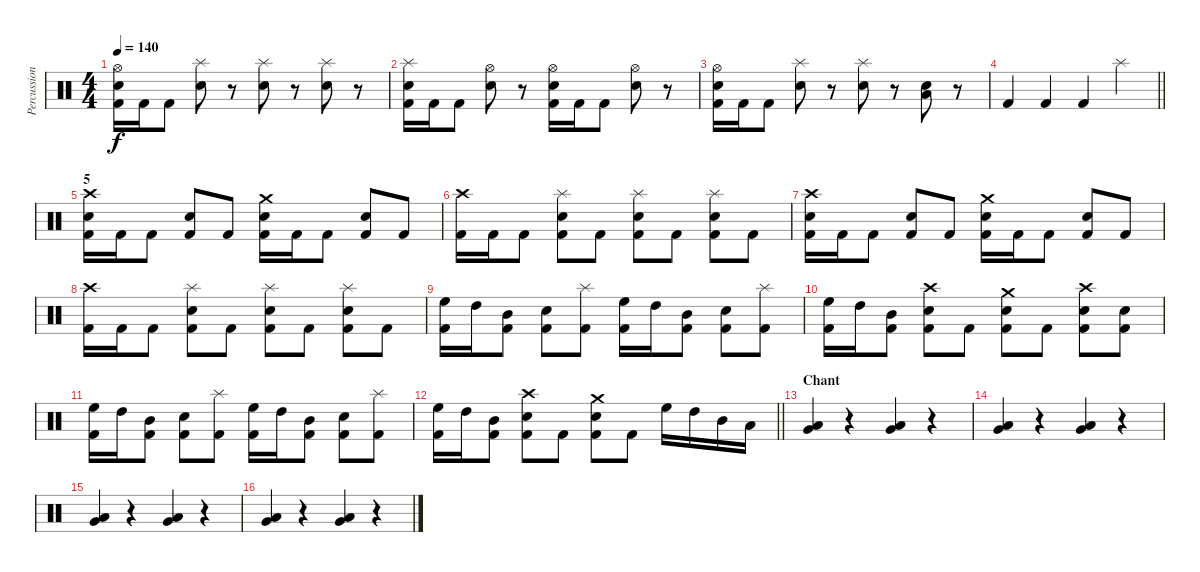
\track ("Percussion" "Percussion") {instrument percussion}
\staff {score}
\articulation defaults
\ts (4 4)
\tempo 140
\clef neutral
\ks c
("Hi-Hat (open)" "Snare (hit) 2" "Kick (hit) 2").16{dy f} "Kick (hit) 2".16 "Kick (hit) 2".8 ("Splash (hit)" "Snare (hit) 2").8 r.8 ("Splash (hit)" "Snare (hit) 2").8 r.8 ("Splash (hit)" "Snare (hit) 2").8 r.8 |
("Splash (hit)" "Snare (hit) 2" "Kick (hit) 2").16 "Kick (hit) 2".16 "Kick (hit) 2".8 ("Hi-Hat (open)" "Snare (hit) 2").8 r.8 ("Hi-Hat (open)" "Snare (hit) 2" "Kick (hit) 2").16 "Kick (hit) 2".16 "Kick (hit) 2".8 ("Hi-Hat (open)" "Snare (hit) 2").8 r.8 |
("Hi-Hat (open)" "Snare (hit) 2" "Kick (hit) 2").16 "Kick (hit) 2".16 "Kick (hit) 2".8 ("Splash (hit)" "Snare (hit) 2").8 r.8 ("Splash (hit)" "Snare (hit) 2").8 r.8 ("Low Floor Tom (hit)" "Snare (hit) 2").8 r.8 |
\barLineRight lightlight "Kick (hit) 2".4 "Kick (hit) 2".4 "Kick (hit) 2".4 "Splash (hit)".4
|
\section ("" "5")
("Crash high (hit)" "Snare (hit) 2" "Kick (hit) 2").16 "Kick (hit) 2".16 "Kick (hit) 2".8 ("Snare (hit) 2" "Kick (hit) 2").8 "Kick (hit) 2".8 ("Crash medium (hit)" "Snare (hit) 2" "Kick (hit) 2").16 "Kick (hit) 2".16 "Kick (hit) 2".8 ("Snare (hit) 2" "Kick (hit) 2").8 "Kick (hit) 2".8 |
("Crash high (hit)" "Kick (hit) 2").16 "Kick (hit) 2".16 "Kick (hit) 2".8 ("Splash (hit)" "Snare (hit) 2" "Kick (hit) 2").8 "Kick (hit) 2".8 ("Splash (hit)" "Snare (hit) 2" "Kick (hit) 2").8 "Kick (hit) 2".8 ("Splash (hit)" "Snare (hit) 2" "Kick (hit) 2").8 "Kick (hit) 2".8 |
("Crash high (hit)" "Snare (hit) 2" "Kick (hit) 2").16 "Kick (hit) 2".16 "Kick (hit) 2".8 ("Snare (hit) 2" "Kick (hit) 2").8 "Kick (hit) 2".8 ("Crash medium (hit)" "Snare (hit) 2" "Kick (hit) 2").16 "Kick (hit) 2".16 "Kick (hit) 2".8 ("Snare (hit) 2" "Kick (hit) 2").8 "Kick (hit) 2".8 |
("Crash high (hit)" "Kick (hit) 2").16 "Kick (hit) 2".16 "Kick (hit) 2".8 ("Splash (hit)" "Snare (hit) 2" "Kick (hit) 2").8 "Kick (hit) 2".8 ("Splash (hit)" "Snare (hit) 2" "Kick (hit) 2").8 "Kick (hit) 2".8 ("Splash (hit)" "Snare (hit) 2" "Kick (hit) 2").8 "Kick (hit) 2".8 |
("High Floor Tom (hit)" "Kick (hit) 2").16 "High Tom (hit)".16 ("Mid Tom (hit)" "Kick (hit) 2").8 ("Snare (hit) 2" "Kick (hit) 2").8 ("Splash (hit)" "Kick (hit) 2").8 ("High Floor Tom (hit)" "Kick (hit) 2").16 "High Tom (hit)".16 ("Mid Tom (hit)" "Kick (hit) 2").8 ("Snare (hit) 2" "Kick (hit) 2").8 ("Splash (hit)" "Kick (hit) 2").8 |
("High Floor Tom (hit)" "Kick (hit) 2").16 "High Tom (hit)".16 ("Mid Tom (hit)" "Kick (hit) 2").8 ("Crash high (hit)" "Snare (hit) 2" "Kick (hit) 2").8 "Kick (hit) 2".8 ("Crash medium (hit)" "Snare (hit) 2" "Kick (hit) 2").8 "Kick (hit) 2".8 ("Crash high (hit)" "Snare (hit) 2" "Kick (hit) 2").8 ("Snare (hit) 2" "Kick (hit) 2").8 |
("High Floor Tom (hit)" "Kick (hit) 2").16 "High Tom (hit)".16 ("Mid Tom (hit)" "Kick (hit) 2").8 ("Snare (hit) 2" "Kick (hit) 2").8 ("Splash (hit)" "Kick (hit) 2").8 ("High Floor Tom (hit)" "Kick (hit) 2").16 "High Tom (hit)".16 ("Mid Tom (hit)" "Kick (hit) 2").8 ("Snare (hit) 2" "Kick (hit) 2").8 ("Splash (hit)" "Kick (hit) 2").8 |
\barLineRight lightlight
("High Floor Tom (hit)" "Kick (hit) 2").16 "High Tom (hit)".16 ("Mid Tom (hit)" "Kick (hit) 2").8 ("Crash high (hit)" "Snare (hit) 2" "Kick (hit) 2").8 "Kick (hit) 2".8 ("Crash medium (hit)" "Snare (hit) 2" "Kick (hit) 2").8 "Kick (hit) 2".8 "High Floor Tom (hit)".16 "High Tom (hit)".16 "Mid Tom (hit)".16 "Low Tom (hit)".16 |
\section ("" "Chant")
("Very Low Tom (hit)" "Low Floor Tom (hit)").4 r.4 ("Very Low Tom (hit)" "Low Floor Tom (hit)").4 r.4 |
("Very Low Tom (hit)" "Low Floor Tom (hit)").4 r.4 ("Very Low Tom (hit)" "Low Floor Tom (hit)").4 r.4 |
("Very Low Tom (hit)" "Low Floor Tom (hit)").4 r.4 ("Very Low Tom (hit)" "Low Floor Tom (hit)").4 r.4 |
("Very Low Tom (hit)" "Low Floor Tom (hit)").4 r.4 ("Very Low Tom (hit)" "Low Floor Tom (hit)").4 r.4
